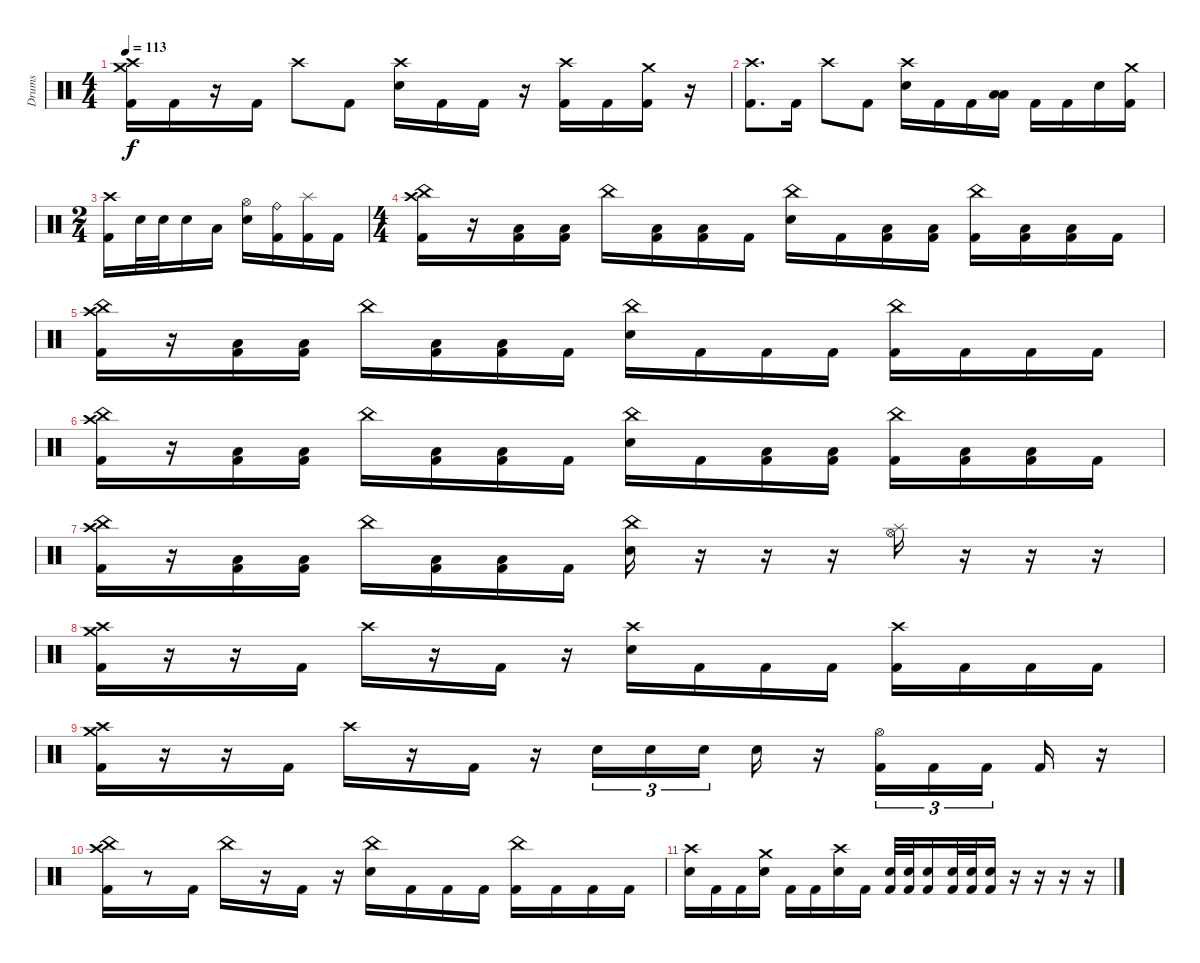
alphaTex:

\track ("Drums" "Drums") {instrument percussion}
\staff {score}
\articulation defaults
\ts (4 4)
\tempo 113
\clef neutral
\ks c
("Crash high (hit)" "Crash medium (hit)" "Kick (hit) 2").16{dy f} "Kick (hit) 2".16 r.16 "Kick (hit) 2".16 "Crash high (hit)".8 "Kick (hit) 2".8 ("Crash high (hit)" "Snare (hit) 2").16 "Kick (hit) 2".16 "Kick (hit) 2".16 r.16 ("Crash high (hit)" "Kick (hit) 2").16 "Kick (hit) 2".16 ("Crash medium (hit)" "Kick (hit) 2").16 r.16 |
("Crash high (hit)" "Kick (hit) 2").8{d} "Kick (hit) 2".16 "Crash high (hit)".8 "Kick (hit) 2".8 ("Crash high (hit)" "Snare (hit) 2").16 "Kick (hit) 2".16 "Kick (hit) 2".16 ("Low Tom (hit)" "Low Floor Tom (hit)").16 "Kick (hit) 2".16 "Kick (hit) 2".16 "Snare (hit) 2".16 ("Crash medium (hit)" "Kick (hit) 2").16 |
\ts (2 4)
("Crash high (hit)" "Kick (hit) 2").16 "Snare (hit) 2".32 "Snare (hit) 2".32 "Snare (hit) 2".16 "Low Tom (hit)".16 ("Hi-Hat (open)" "Snare (hit) 2").16 ("Ride (bell)" "Kick (hit) 2").16 ("Splash (hit)" "Kick (hit) 2").16 "Kick (hit) 2".16 |
\ts (4 4)
("China (hit)" "Crash high (hit)" "Kick (hit) 2").16 r.16 ("Low Floor Tom (hit)" "Kick (hit) 2").16 ("Low Floor Tom (hit)" "Kick (hit) 2").16 "China (hit)".16 ("Low Floor Tom (hit)" "Kick (hit) 2").16 ("Low Floor Tom (hit)" "Kick (hit) 2").16 "Kick (hit) 2".16 ("China (hit)" "Snare (hit) 2").16 "Kick (hit) 2".16 ("Low Floor Tom (hit)" "Kick (hit) 2").16 ("Low Floor Tom (hit)" "Kick (hit) 2").16 ("China (hit)" "Kick (hit) 2").16 ("Low Floor Tom (hit)" "Kick (hit) 2").16 ("Low Floor Tom (hit)" "Kick (hit) 2").16 "Kick (hit) 2".16 |
("China (hit)" "Crash high (hit)" "Kick (hit) 2").16 r.16 ("Low Floor Tom (hit)" "Kick (hit) 2").16 ("Low Floor Tom (hit)" "Kick (hit) 2").16 "China (hit)".16 ("Low Floor Tom (hit)" "Kick (hit) 2").16 ("Low Floor Tom (hit)" "Kick (hit) 2").16 "Kick (hit) 2".16 ("China (hit)" "Snare (hit) 2").16 "Kick (hit) 2".16 "Kick (hit) 2".16 "Kick (hit) 2".16 ("China (hit)" "Kick (hit) 2").16 "Kick (hit) 2".16 "Kick (hit) 2".16 "Kick (hit) 2".16 |
("China (hit)" "Crash high (hit)" "Kick (hit) 2").16 r.16 ("Low Floor Tom (hit)" "Kick (hit) 2").16 ("Low Floor Tom (hit)" "Kick (hit) 2").16 "China (hit)".16 ("Low Floor Tom (hit)" "Kick (hit) 2").16 ("Low Floor Tom (hit)" "Kick (hit) 2").16 "Kick (hit) 2".16 ("China (hit)" "Snare (hit) 2").16 "Kick (hit) 2".16 ("Low Floor Tom (hit)" "Kick (hit) 2").16 ("Low Floor Tom (hit)" "Kick (hit) 2").16 ("China (hit)" "Kick (hit) 2").16 ("Low Floor Tom (hit)" "Kick (hit) 2").16 ("Low Floor Tom (hit)" "Kick (hit) 2").16 "Kick (hit) 2".16 |
("China (hit)" "Crash high (hit)" "Kick (hit) 2").16 r.16 ("Low Floor Tom (hit)" "Kick (hit) 2").16 ("Low Floor Tom (hit)" "Kick (hit) 2").16 "China (hit)".16 ("Low Floor Tom (hit)" "Kick (hit) 2").16 ("Low Floor Tom (hit)" "Kick (hit) 2").16 "Kick (hit) 2".16 ("China (hit)" "Snare (hit) 2").16 r.16 r.16 r.16 ("Splash (hit)" "Hi-Hat (open)").16 r.16 r.16 r.16 |
("Crash medium (hit)" "Crash high (hit)" "Kick (hit) 2").16 r.16 r.16 "Kick (hit) 2".16 "Crash high (hit)".16 r.16 "Kick (hit) 2".16 r.16 ("Crash high (hit)" "Snare (hit) 2").16 "Kick (hit) 2".16 "Kick (hit) 2".16 "Kick (hit) 2".16 ("Crash high (hit)" "Kick (hit) 2").16 "Kick (hit) 2".16 "Kick (hit) 2".16 "Kick (hit) 2".16 |
("Crash high (hit)" "Crash medium (hit)" "Kick (hit) 2").16 r.16 r.16 "Kick (hit) 2".16 "Crash high (hit)".16 r.16 "Kick (hit) 2".16 r.16 "Snare (hit) 2".16{tu (3 2)} "Snare (hit) 2".16{tu (3 2)} "Snare (hit) 2".16{tu (3 2) beam splitsecondary} "Snare (hit) 2".16 r.16 ("Hi-Hat (open)" "Kick (hit) 2").16{tu (3 2)} "Kick (hit) 2".16{tu (3 2)} "Kick (hit) 2".16{tu (3 2) beam splitsecondary} "Kick (hit) 2".16 r.16 |
("China (hit)" "Crash high (hit)" "Kick (hit) 2").16 r.8 "Kick (hit) 2".16 "China (hit)".16 r.16 "Kick (hit) 2".16 r.16 ("China (hit)" "Snare (hit) 2").16 "Kick (hit) 2".16 "Kick (hit) 2".16 "Kick (hit) 2".16 ("China (hit)" "Kick (hit) 2").16 "Kick (hit) 2".16 "Kick (hit) 2".16 "Kick (hit) 2".16 |
("Crash high (hit)" "Snare (hit) 2").16 "Kick (hit) 2".16 "Kick (hit) 2".16 ("Crash medium (hit)" "Snare (hit) 2").16 "Kick (hit) 2".16 "Kick (hit) 2".16 ("Crash high (hit)" "Snare (hit) 2").16 "Kick (hit) 2".16 ("Snare (hit) 2" "Kick (hit) 2").32 ("Snare (hit) 2" "Kick (hit) 2").32 ("Snare (hit) 2" "Kick (hit) 2").16 ("Snare (hit) 2" "Kick (hit) 2").32 ("Snare (hit) 2" "Kick (hit) 2").32 ("Snare (hit) 2" "Kick (hit) 2").16 r.16 r.16 r.16 r.16
